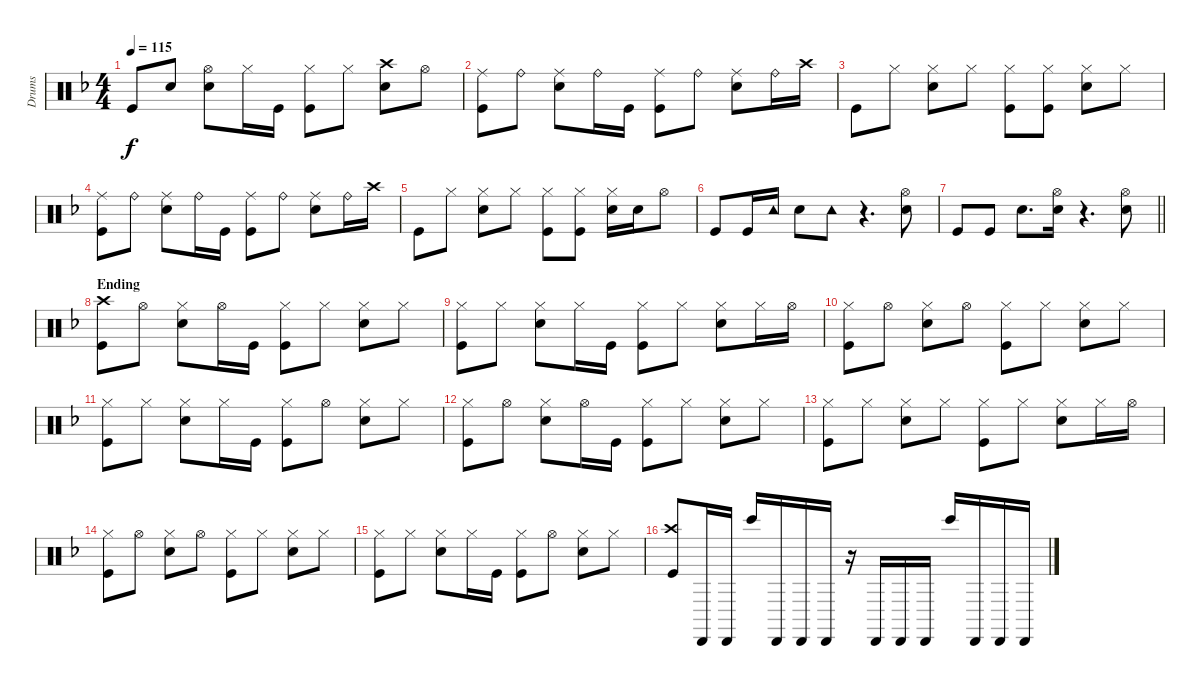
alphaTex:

\track ("Drums" "Drums") {instrument percussion}
\staff {score}
\articulation defaults
\ts (4 4)
\tempo 115
\clef neutral
\ks f "Kick (hit)".8{dy f} "Snare (hit) 2".8
("Snare (hit) 2" "Hi-Hat (open)").8 "Hi-Hat (closed)".16 "Kick (hit)".16 ("Hi-Hat (closed)" "Kick (hit)").8 "Hi-Hat (closed)".8 ("Crash high (hit)" "Snare (hit) 2").8 "Hi-Hat (open)".8 |
("Ride (middle)" "Kick (hit)").8 "Ride (bell)".8 ("Ride (middle)" "Snare (hit) 2").8 "Ride (bell)".16 "Kick (hit)".16 ("Ride (middle)" "Kick (hit)").8 "Ride (bell)".8 ("Ride (middle)" "Snare (hit) 2").8 "Ride (bell)".16 "Crash high (hit)".16 |
"Kick (hit)".8 "Hi-Hat (closed)".8 ("Hi-Hat (closed)" "Snare (hit) 2").8 "Hi-Hat (closed)".8 ("Hi-Hat (closed)" "Kick (hit)").8 ("Hi-Hat (closed)" "Kick (hit)").8 ("Hi-Hat (closed)" "Snare (hit) 2").8 "Hi-Hat (closed)".8 |
("Ride (middle)" "Kick (hit)").8 "Ride (bell)".8 ("Ride (middle)" "Snare (hit) 2").8 "Ride (bell)".16 "Kick (hit)".16 ("Ride (middle)" "Kick (hit)").8 "Ride (bell)".8 ("Ride (middle)" "Snare (hit) 2").8 "Ride (bell)".16 "Crash high (hit)".16 |
"Kick (hit)".8 "Hi-Hat (closed)".8 ("Hi-Hat (closed)" "Snare (hit) 2").8 "Hi-Hat (closed)".8 ("Hi-Hat (closed)" "Kick (hit)").8 ("Hi-Hat (closed)" "Kick (hit)").8 ("Hi-Hat (closed)" "Snare (hit) 2").16 "Snare (hit) 2".16 "Hi-Hat (open)".8 |
"Kick (hit)".8 "Kick (hit)".16 "Tambourine (hit)".16 "Snare (hit) 2".8 "Tambourine (hit)".8 r.4{d} ("Snare (hit) 2" "Hi-Hat (open)").8 |
\barLineRight lightlight "Kick (hit)".8 "Kick (hit)".8 "Snare (hit) 2".8{d}
("Snare (hit) 2" "Hi-Hat (open)").16 r.4{d} ("Snare (hit) 2" "Hi-Hat (open)").8 |
\section ("" "Ending")
("Crash high (hit)" "Kick (hit)").8 "Hi-Hat (open)".8 ("Hi-Hat (closed)" "Snare (hit) 2").8 "Hi-Hat (open)".16 "Kick (hit)".16 ("Hi-Hat (closed)" "Kick (hit)").8 "Hi-Hat (closed)".8 ("Hi-Hat (closed)" "Snare (hit) 2").8 "Hi-Hat (closed)".8 |
("Hi-Hat (closed)" "Kick (hit)").8 "Hi-Hat (closed)".8 ("Hi-Hat (closed)" "Snare (hit) 2").8 "Hi-Hat (closed)".16 "Kick (hit)".16 ("Hi-Hat (closed)" "Kick (hit)").8 "Hi-Hat (closed)".8 ("Hi-Hat (closed)" "Snare (hit) 2").8 "Hi-Hat (closed)".16 "Hi-Hat (open)".16 |
("Hi-Hat (closed)" "Kick (hit)").8 "Hi-Hat (open)".8 ("Hi-Hat (closed)" "Snare (hit) 2").8 "Hi-Hat (open)".8 ("Hi-Hat (closed)" "Kick (hit)").8 "Hi-Hat (closed)".8 ("Hi-Hat (closed)" "Snare (hit) 2").8 "Hi-Hat (closed)".8 |
("Hi-Hat (closed)" "Kick (hit)").8 "Hi-Hat (closed)".8 ("Hi-Hat (closed)" "Snare (hit) 2").8 "Hi-Hat (closed)".16 "Kick (hit)".16 ("Hi-Hat (closed)" "Kick (hit)").8 "Hi-Hat (open)".8 ("Hi-Hat (closed)" "Snare (hit) 2").8 "Hi-Hat (closed)".8 |
("Hi-Hat (closed)" "Kick (hit)").8 "Hi-Hat (open)".8 ("Hi-Hat (closed)" "Snare (hit) 2").8 "Hi-Hat (open)".16 "Kick (hit)".16 ("Hi-Hat (closed)" "Kick (hit)").8 "Hi-Hat (closed)".8 ("Hi-Hat (closed)" "Snare (hit) 2").8 "Hi-Hat (closed)".8 |
("Hi-Hat (closed)" "Kick (hit)").8 "Hi-Hat (closed)".8 ("Hi-Hat (closed)" "Snare (hit) 2").8 "Hi-Hat (closed)".8 ("Hi-Hat (closed)" "Kick (hit)").8 "Hi-Hat (closed)".8 ("Hi-Hat (closed)" "Snare (hit) 2").8 "Hi-Hat (closed)".16 "Hi-Hat (open)".16 |
("Hi-Hat (closed)" "Kick (hit)").8 "Hi-Hat (open)".8 ("Hi-Hat (closed)" "Snare (hit) 2").8 "Hi-Hat (open)".8 ("Hi-Hat (closed)" "Kick (hit)").8 "Hi-Hat (closed)".8 ("Hi-Hat (closed)" "Snare (hit) 2").8 "Hi-Hat (closed)".8 |
("Hi-Hat (closed)" "Kick (hit)").8 "Hi-Hat (closed)".8 ("Hi-Hat (closed)" "Snare (hit) 2").8 "Hi-Hat (closed)".16 "Kick (hit)".16 ("Hi-Hat (closed)" "Kick (hit)").8 "Hi-Hat (open)".8 ("Hi-Hat (closed)" "Snare (hit) 2").8 "Hi-Hat (closed)".8 |
("Crash high (hit)" "Kick (hit)").8 "Cabasa (hit)".16 "Cabasa (hit)".16 "Bongo High (hit)".16 "Cabasa (hit)".16 "Cabasa (hit)".16 "Cabasa (hit)".16 r.16 "Cabasa (hit)".16 "Cabasa (hit)".16 "Cabasa (hit)".16 "Bongo High (hit)".16 "Cabasa (hit)".16 "Cabasa (hit)".16 "Cabasa (hit)".16
